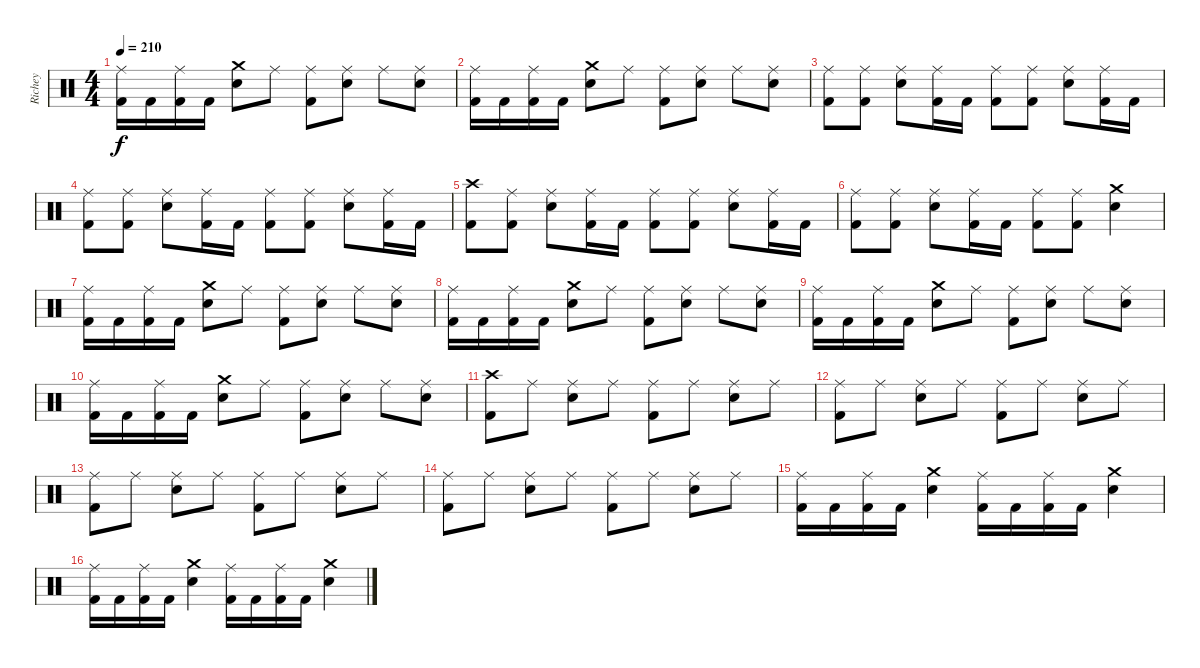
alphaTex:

\track ("Richey" "Richey") {instrument percussion}
\staff {score}
\articulation defaults
\ts (4 4)
\tempo 210
\clef neutral
\ks c
("Ride (middle)" "Kick (hit) 2").16{dy f} "Kick (hit) 2".16 ("Ride (middle)" "Kick (hit) 2").16 "Kick (hit) 2".16 ("Crash medium (hit)" "Snare (hit) 2").8 "Ride (middle)".8 ("Ride (middle)" "Kick (hit) 2").8 ("Ride (middle)" "Snare (hit) 2").8 "Ride (middle)".8 ("Ride (middle)" "Snare (hit) 2").8 |
("Ride (middle)" "Kick (hit) 2").16 "Kick (hit) 2".16 ("Ride (middle)" "Kick (hit) 2").16 "Kick (hit) 2".16 ("Crash medium (hit)" "Snare (hit) 2").8 "Ride (middle)".8 ("Ride (middle)" "Kick (hit) 2").8 ("Ride (middle)" "Snare (hit) 2").8 "Ride (middle)".8 ("Ride (middle)" "Snare (hit) 2").8 |
("Ride (middle)" "Kick (hit) 2").8 ("Ride (middle)" "Kick (hit) 2").8 ("Ride (middle)" "Snare (hit) 2").8 ("Ride (middle)" "Kick (hit) 2").16 "Kick (hit) 2".16 ("Ride (middle)" "Kick (hit) 2").8 ("Ride (middle)" "Kick (hit) 2").8 ("Ride (middle)" "Snare (hit) 2").8 ("Ride (middle)" "Kick (hit) 2").16 "Kick (hit) 2".16 |
("Ride (middle)" "Kick (hit) 2").8 ("Ride (middle)" "Kick (hit) 2").8 ("Ride (middle)" "Snare (hit) 2").8 ("Ride (middle)" "Kick (hit) 2").16 "Kick (hit) 2".16 ("Ride (middle)" "Kick (hit) 2").8 ("Ride (middle)" "Kick (hit) 2").8 ("Ride (middle)" "Snare (hit) 2").8 ("Ride (middle)" "Kick (hit) 2").16 "Kick (hit) 2".16 |
("Crash high (hit)" "Kick (hit) 2").8 ("Ride (middle)" "Kick (hit) 2").8 ("Ride (middle)" "Snare (hit) 2").8 ("Ride (middle)" "Kick (hit) 2").16 "Kick (hit) 2".16 ("Ride (middle)" "Kick (hit) 2").8 ("Ride (middle)" "Kick (hit) 2").8 ("Ride (middle)" "Snare (hit) 2").8 ("Ride (middle)" "Kick (hit) 2").16 "Kick (hit) 2".16 |
("Ride (middle)" "Kick (hit) 2").8 ("Ride (middle)" "Kick (hit) 2").8 ("Ride (middle)" "Snare (hit) 2").8 ("Ride (middle)" "Kick (hit) 2").16 "Kick (hit) 2".16 ("Ride (middle)" "Kick (hit) 2").8 ("Ride (middle)" "Kick (hit) 2").8 ("Crash medium (hit)" "Snare (hit) 2").4 |
("Ride (middle)" "Kick (hit) 2").16 "Kick (hit) 2".16 ("Ride (middle)" "Kick (hit) 2").16 "Kick (hit) 2".16 ("Crash medium (hit)" "Snare (hit) 2").8 "Ride (middle)".8 ("Ride (middle)" "Kick (hit) 2").8 ("Ride (middle)" "Snare (hit) 2").8 "Ride (middle)".8 ("Ride (middle)" "Snare (hit) 2").8 |
("Ride (middle)" "Kick (hit) 2").16 "Kick (hit) 2".16 ("Ride (middle)" "Kick (hit) 2").16 "Kick (hit) 2".16 ("Crash medium (hit)" "Snare (hit) 2").8 "Ride (middle)".8 ("Ride (middle)" "Kick (hit) 2").8 ("Ride (middle)" "Snare (hit) 2").8 "Ride (middle)".8 ("Ride (middle)" "Snare (hit) 2").8 |
("Ride (middle)" "Kick (hit) 2").16 "Kick (hit) 2".16 ("Ride (middle)" "Kick (hit) 2").16 "Kick (hit) 2".16 ("Crash medium (hit)" "Snare (hit) 2").8 "Ride (middle)".8 ("Ride (middle)" "Kick (hit) 2").8 ("Ride (middle)" "Snare (hit) 2").8 "Ride (middle)".8 ("Ride (middle)" "Snare (hit) 2").8 |
("Ride (middle)" "Kick (hit) 2").16 "Kick (hit) 2".16 ("Ride (middle)" "Kick (hit) 2").16 "Kick (hit) 2".16 ("Crash medium (hit)" "Snare (hit) 2").8 "Ride (middle)".8 ("Ride (middle)" "Kick (hit) 2").8 ("Ride (middle)" "Snare (hit) 2").8 "Ride (middle)".8 ("Ride (middle)" "Snare (hit) 2").8 |
("Crash high (hit)" "Kick (hit) 2").8 "Ride (middle)".8 ("Ride (middle)" "Snare (hit) 2").8 "Ride (middle)".8 ("Ride (middle)" "Kick (hit) 2").8 "Ride (middle)".8 ("Ride (middle)" "Snare (hit) 2").8 "Ride (middle)".8 |
("Ride (middle)" "Kick (hit) 2").8 "Ride (middle)".8 ("Ride (middle)" "Snare (hit) 2").8 "Ride (middle)".8 ("Ride (middle)" "Kick (hit) 2").8 "Ride (middle)".8 ("Ride (middle)" "Snare (hit) 2").8 "Ride (middle)".8 |
("Ride (middle)" "Kick (hit) 2").8 "Ride (middle)".8 ("Ride (middle)" "Snare (hit) 2").8 "Ride (middle)".8 ("Ride (middle)" "Kick (hit) 2").8 "Ride (middle)".8 ("Ride (middle)" "Snare (hit) 2").8 "Ride (middle)".8 |
("Ride (middle)" "Kick (hit) 2").8 "Ride (middle)".8 ("Ride (middle)" "Snare (hit) 2").8 "Ride (middle)".8 ("Ride (middle)" "Kick (hit) 2").8 "Ride (middle)".8 ("Ride (middle)" "Snare (hit) 2").8 "Ride (middle)".8 |
("Ride (middle)" "Kick (hit) 2").16 "Kick (hit) 2".16 ("Ride (middle)" "Kick (hit) 2").16 "Kick (hit) 2".16 ("Crash medium (hit)" "Snare (hit) 2").4 ("Ride (middle)" "Kick (hit) 2").16 "Kick (hit) 2".16 ("Ride (middle)" "Kick (hit) 2").16 "Kick (hit) 2".16 ("Crash medium (hit)" "Snare (hit) 2").4 |
("Ride (middle)" "Kick (hit) 2").16 "Kick (hit) 2".16 ("Ride (middle)" "Kick (hit) 2").16 "Kick (hit) 2".16 ("Crash medium (hit)" "Snare (hit) 2").4 ("Ride (middle)" "Kick (hit) 2").16 "Kick (hit) 2".16 ("Ride (middle)" "Kick (hit) 2").16 "Kick (hit) 2".16 ("Crash medium (hit)" "Snare (hit) 2").4
